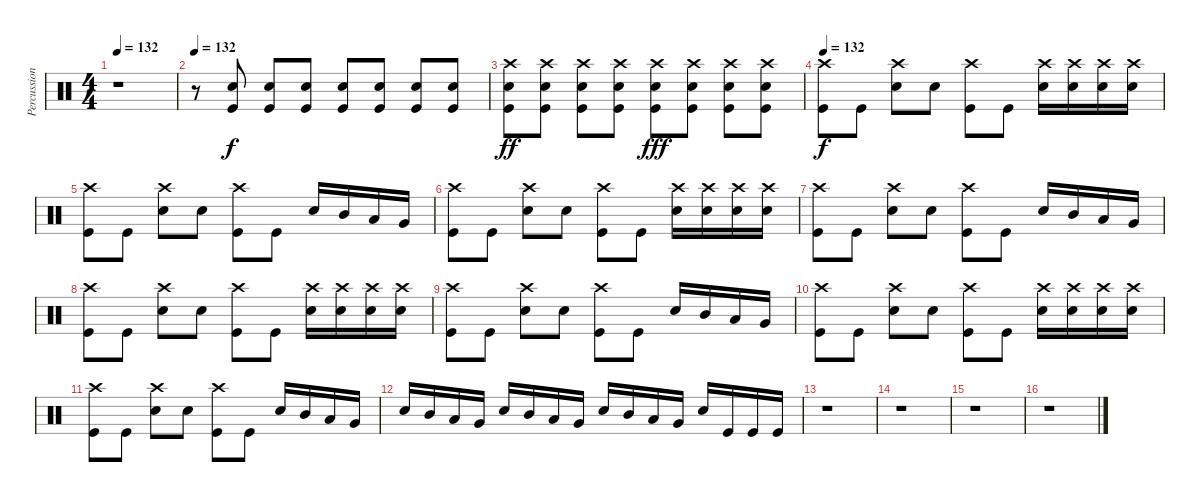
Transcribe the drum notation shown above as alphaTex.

\track ("Percussion" "Percussion") {instrument percussion}
\staff {score}
\articulation defaults
\ts (4 4)
\tempo 132
\clef neutral
\ks c
r.1{dy fff} |
\tempo 132
r.8 ("Kick (hit)" "Electric Snare (hit)").8{dy f} ("Kick (hit)" "Electric Snare (hit)").8 ("Kick (hit)" "Electric Snare (hit)").8 ("Kick (hit)" "Electric Snare (hit)").8 ("Kick (hit)" "Electric Snare (hit)").8 ("Kick (hit)" "Electric Snare (hit)").8 ("Kick (hit)" "Electric Snare (hit)").8 |
("Kick (hit)" "Electric Snare (hit)" "Crash high (hit)").8{dy ff} ("Kick (hit)" "Electric Snare (hit)" "Crash high (hit)").8 ("Kick (hit)" "Electric Snare (hit)" "Crash high (hit)").8 ("Kick (hit)" "Electric Snare (hit)" "Crash high (hit)").8 ("Kick (hit)" "Electric Snare (hit)" "Crash high (hit)").8{dy fff} ("Kick (hit)" "Electric Snare (hit)" "Crash high (hit)").8 ("Kick (hit)" "Electric Snare (hit)" "Crash high (hit)").8 ("Kick (hit)" "Electric Snare (hit)" "Crash high (hit)").8 |
\tempo 132
("Kick (hit)" "Crash high (hit)").8{dy f} "Kick (hit)".8 ("Crash high (hit)" "Electric Snare (hit)").8 "Electric Snare (hit)".8 ("Kick (hit)" "Crash high (hit)").8 "Kick (hit)".8 ("Crash high (hit)" "Electric Snare (hit)").16 ("Crash high (hit)" "Electric Snare (hit)").16 ("Crash high (hit)" "Electric Snare (hit)").16 ("Crash high (hit)" "Electric Snare (hit)").16 |
("Kick (hit)" "Crash high (hit)").8 "Kick (hit)".8 ("Crash high (hit)" "Electric Snare (hit)").8 "Electric Snare (hit)".8 ("Kick (hit)" "Crash high (hit)").8 "Kick (hit)".8 "Electric Snare (hit)".16 "Mid Tom (hit)".16 "Low Tom (hit)".16 "Very Low Tom (hit)".16 |
("Kick (hit)" "Crash high (hit)").8 "Kick (hit)".8 ("Crash high (hit)" "Electric Snare (hit)").8 "Electric Snare (hit)".8 ("Kick (hit)" "Crash high (hit)").8 "Kick (hit)".8 ("Crash high (hit)" "Electric Snare (hit)").16 ("Crash high (hit)" "Electric Snare (hit)").16 ("Crash high (hit)" "Electric Snare (hit)").16 ("Crash high (hit)" "Electric Snare (hit)").16 |
("Kick (hit)" "Crash high (hit)").8 "Kick (hit)".8 ("Crash high (hit)" "Electric Snare (hit)").8 "Electric Snare (hit)".8 ("Kick (hit)" "Crash high (hit)").8 "Kick (hit)".8 "Electric Snare (hit)".16 "Mid Tom (hit)".16 "Low Tom (hit)".16 "Very Low Tom (hit)".16 |
("Kick (hit)" "Crash high (hit)").8 "Kick (hit)".8 ("Crash high (hit)" "Electric Snare (hit)").8 "Electric Snare (hit)".8 ("Kick (hit)" "Crash high (hit)").8 "Kick (hit)".8 ("Crash high (hit)" "Electric Snare (hit)").16 ("Crash high (hit)" "Electric Snare (hit)").16 ("Crash high (hit)" "Electric Snare (hit)").16 ("Crash high (hit)" "Electric Snare (hit)").16 |
("Kick (hit)" "Crash high (hit)").8 "Kick (hit)".8 ("Crash high (hit)" "Electric Snare (hit)").8 "Electric Snare (hit)".8 ("Kick (hit)" "Crash high (hit)").8 "Kick (hit)".8 "Electric Snare (hit)".16 "Mid Tom (hit)".16 "Low Tom (hit)".16 "Very Low Tom (hit)".16 |
("Kick (hit)" "Crash high (hit)").8 "Kick (hit)".8 ("Crash high (hit)" "Electric Snare (hit)").8 "Electric Snare (hit)".8 ("Kick (hit)" "Crash high (hit)").8 "Kick (hit)".8 ("Crash high (hit)" "Electric Snare (hit)").16 ("Crash high (hit)" "Electric Snare (hit)").16 ("Crash high (hit)" "Electric Snare (hit)").16 ("Crash high (hit)" "Electric Snare (hit)").16 |
("Kick (hit)" "Crash high (hit)").8 "Kick (hit)".8 ("Crash high (hit)" "Electric Snare (hit)").8 "Electric Snare (hit)".8 ("Kick (hit)" "Crash high (hit)").8 "Kick (hit)".8 "Electric Snare (hit)".16 "Mid Tom (hit)".16 "Low Tom (hit)".16 "Very Low Tom (hit)".16 |
"Electric Snare (hit)".16 "Mid Tom (hit)".16 "Low Tom (hit)".16 "Very Low Tom (hit)".16 "Electric Snare (hit)".16 "Mid Tom (hit)".16 "Low Tom (hit)".16 "Very Low Tom (hit)".16 "Electric Snare (hit)".16 "Mid Tom (hit)".16 "Low Tom (hit)".16 "Very Low Tom (hit)".16 "Electric Snare (hit)".16 "Kick (hit)".16 "Kick (hit)".16 "Kick (hit)".16 |
r.1 |
r.1 |
r.1 |
r.1
